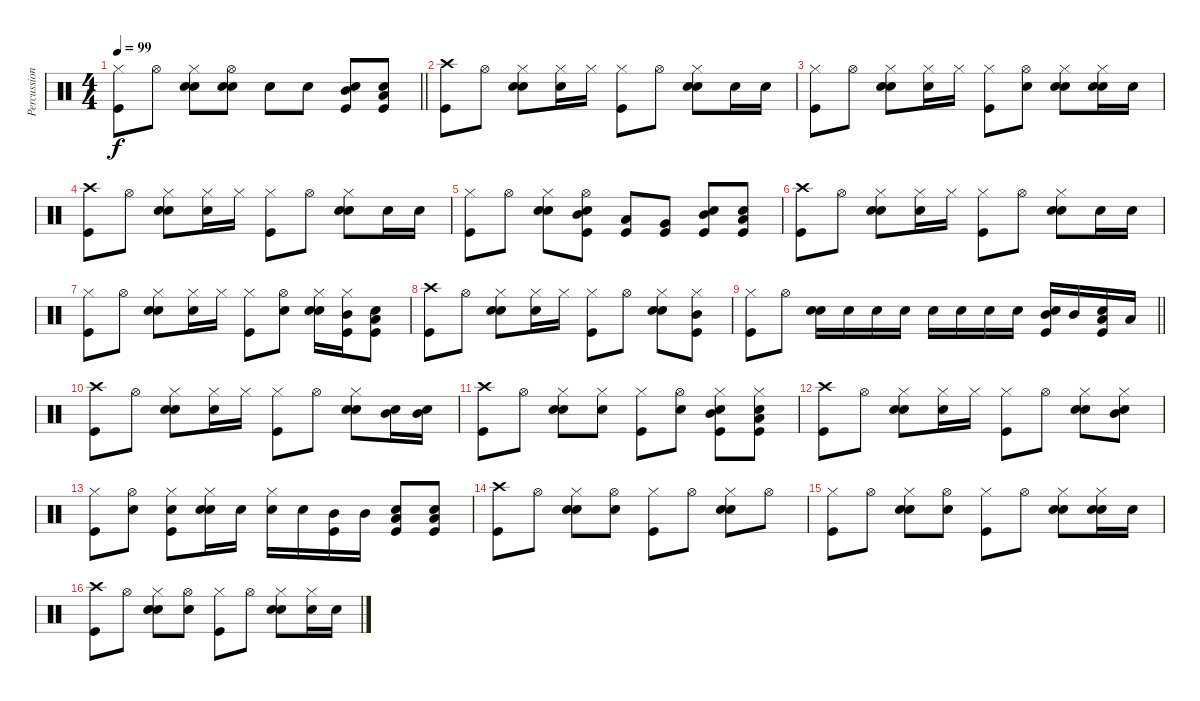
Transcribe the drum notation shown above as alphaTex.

\track ("Percussion" "Percussion") {instrument percussion}
\staff {score}
\articulation defaults
\ts (4 4)
\tempo 99
\clef neutral
\barLineRight lightlight
\ks c
("Hi-Hat (closed)" "Kick (hit)").8{dy f} "Hi-Hat (open)".8 ("Hi-Hat (closed)" "Hand Clap (hit)" "Snare (hit) 2").8 ("Hi-Hat (open)" "Hand Clap (hit)" "Snare (hit) 2").8 "Snare (hit) 2".8 "Snare (hit) 2".8 ("Hand Clap (hit)" "Mid Tom (hit)" "Kick (hit)").8 ("Hand Clap (hit)" "Low Tom (hit)" "Kick (hit)").8 |
("Crash high (hit)" "Kick (hit)").8 "Hi-Hat (open)".8 ("Hi-Hat (closed)" "Hand Clap (hit)" "Snare (hit) 2").8 ("Hi-Hat (closed)" "Hand Clap (hit)").16 "Hi-Hat (closed)".16 ("Hi-Hat (closed)" "Kick (hit)").8 "Hi-Hat (open)".8 ("Hi-Hat (closed)" "Hand Clap (hit)" "Snare (hit) 2").8 "Snare (hit) 2".16 "Snare (hit) 2".16 |
("Hi-Hat (closed)" "Kick (hit)").8 "Hi-Hat (open)".8 ("Hi-Hat (closed)" "Hand Clap (hit)" "Snare (hit) 2").8 ("Hi-Hat (closed)" "Hand Clap (hit)").16 "Hi-Hat (closed)".16 ("Hi-Hat (closed)" "Kick (hit)").8 ("Hi-Hat (open)" "Snare (hit) 2").8 ("Hi-Hat (closed)" "Hand Clap (hit)" "Snare (hit) 2").8 ("Hi-Hat (closed)" "Hand Clap (hit)" "Snare (hit) 2").16 "Snare (hit) 2".16 |
("Crash high (hit)" "Kick (hit)").8 "Hi-Hat (open)".8 ("Hi-Hat (closed)" "Hand Clap (hit)" "Snare (hit) 2").8 ("Hi-Hat (closed)" "Hand Clap (hit)").16 "Hi-Hat (closed)".16 ("Hi-Hat (closed)" "Kick (hit)").8 "Hi-Hat (open)".8 ("Hi-Hat (closed)" "Hand Clap (hit)" "Snare (hit) 2").8 "Snare (hit) 2".16 "Snare (hit) 2".16 |
("Hi-Hat (closed)" "Kick (hit)").8 "Hi-Hat (open)".8 ("Hi-Hat (closed)" "Hand Clap (hit)" "Snare (hit) 2").8 ("Hi-Hat (open)" "Hand Clap (hit)" "Mid Tom (hit)" "Kick (hit)").8 ("Low Tom (hit)" "Kick (hit)").8 ("Very Low Tom (hit)" "Kick (hit)").8 ("Hand Clap (hit)" "Mid Tom (hit)" "Kick (hit)").8 ("Hand Clap (hit)" "Low Tom (hit)" "Kick (hit)").8 |
("Crash high (hit)" "Kick (hit)").8 "Hi-Hat (open)".8 ("Hi-Hat (closed)" "Hand Clap (hit)" "Snare (hit) 2").8 ("Hi-Hat (closed)" "Hand Clap (hit)").16 "Hi-Hat (closed)".16 ("Hi-Hat (closed)" "Kick (hit)").8 "Hi-Hat (open)".8 ("Hi-Hat (closed)" "Hand Clap (hit)" "Snare (hit) 2").8 "Snare (hit) 2".16 "Snare (hit) 2".16 |
("Hi-Hat (closed)" "Kick (hit)").8 "Hi-Hat (open)".8 ("Hi-Hat (closed)" "Hand Clap (hit)" "Snare (hit) 2").8 ("Hi-Hat (closed)" "Hand Clap (hit)").16 "Hi-Hat (closed)".16 ("Hi-Hat (closed)" "Kick (hit)").8 ("Hi-Hat (open)" "Snare (hit) 2").8 ("Hi-Hat (closed)" "Hand Clap (hit)" "Snare (hit) 2").16 ("Hi-Hat (closed)" "Mid Tom (hit)" "Kick (hit)").16 ("Hand Clap (hit)" "Low Tom (hit)" "Kick (hit)").8 |
("Crash high (hit)" "Kick (hit)").8 "Hi-Hat (open)".8 ("Hi-Hat (closed)" "Hand Clap (hit)" "Snare (hit) 2").8 ("Hi-Hat (closed)" "Hand Clap (hit)").16 "Hi-Hat (closed)".16 ("Hi-Hat (closed)" "Kick (hit)").8 "Hi-Hat (open)".8 ("Hi-Hat (closed)" "Hand Clap (hit)" "Snare (hit) 2").8 ("Hi-Hat (closed)" "Mid Tom (hit)" "Kick (hit)").8 |
\barLineRight lightlight
("Hi-Hat (closed)" "Kick (hit)").8 "Hi-Hat (open)".8 ("Hand Clap (hit)" "Snare (hit) 2").16 "Snare (hit) 2".16 "Snare (hit) 2".16 "Snare (hit) 2".16 "Snare (hit) 2".16 "Snare (hit) 2".16 "Snare (hit) 2".16 "Snare (hit) 2".16 ("Hand Clap (hit)" "Mid Tom (hit)" "Kick (hit)").16 "Mid Tom (hit)".16 ("Hand Clap (hit)" "Low Tom (hit)" "Kick (hit)").16 "Low Tom (hit)".16 |
("Crash high (hit)" "Kick (hit)").8 "Hi-Hat (open)".8 ("Hi-Hat (closed)" "Hand Clap (hit)" "Snare (hit) 2").8 ("Hi-Hat (closed)" "Hand Clap (hit)").16 "Hi-Hat (closed)".16 ("Hi-Hat (closed)" "Kick (hit)").8 "Hi-Hat (open)".8 ("Hi-Hat (closed)" "Hand Clap (hit)" "Snare (hit) 2").8 ("Mid Tom (hit)" "Snare (hit) 2").16 ("Mid Tom (hit)" "Snare (hit) 2").16 |
("Crash high (hit)" "Kick (hit)").8 "Hi-Hat (open)".8 ("Hi-Hat (closed)" "Hand Clap (hit)" "Snare (hit) 2").8 ("Hi-Hat (closed)" "Hand Clap (hit)").8 ("Hi-Hat (closed)" "Kick (hit)").8 ("Hi-Hat (open)" "Snare (hit) 2").8 ("Hi-Hat (closed)" "Hand Clap (hit)" "Mid Tom (hit)" "Kick (hit)").8 ("Hi-Hat (closed)" "Hand Clap (hit)" "Low Tom (hit)" "Kick (hit)").8 |
("Crash high (hit)" "Kick (hit)").8 "Hi-Hat (open)".8 ("Hi-Hat (closed)" "Hand Clap (hit)" "Snare (hit) 2").8 ("Hi-Hat (closed)" "Hand Clap (hit)").16 "Hi-Hat (closed)".16 ("Hi-Hat (closed)" "Kick (hit)").8 "Hi-Hat (open)".8 ("Hi-Hat (closed)" "Hand Clap (hit)" "Snare (hit) 2").8 ("Hi-Hat (closed)" "Mid Tom (hit)" "Snare (hit) 2").8 |
("Hi-Hat (closed)" "Kick (hit)").8 ("Hi-Hat (open)" "Snare (hit) 2").8 ("Hi-Hat (closed)" "Hand Clap (hit)" "Kick (hit)").8 ("Hi-Hat (closed)" "Hand Clap (hit)" "Snare (hit) 2").16 "Snare (hit) 2".16 ("Hi-Hat (closed)" "Snare (hit) 2").16 "Snare (hit) 2".16 ("Mid Tom (hit)" "Kick (hit)").16 "Mid Tom (hit)".16 ("Hand Clap (hit)" "Low Tom (hit)" "Kick (hit)").8 ("Hand Clap (hit)" "Low Tom (hit)" "Kick (hit)").8 |
("Crash high (hit)" "Kick (hit)").8 "Hi-Hat (open)".8 ("Hi-Hat (closed)" "Hand Clap (hit)" "Snare (hit) 2").8 ("Hi-Hat (open)" "Hand Clap (hit)").8 ("Hi-Hat (closed)" "Kick (hit)").8 "Hi-Hat (open)".8 ("Hi-Hat (closed)" "Hand Clap (hit)" "Snare (hit) 2").8 "Hi-Hat (open)".8 |
("Hi-Hat (closed)" "Kick (hit)").8 "Hi-Hat (open)".8 ("Hi-Hat (closed)" "Hand Clap (hit)" "Snare (hit) 2").8 ("Hi-Hat (open)" "Hand Clap (hit)").8 ("Hi-Hat (closed)" "Kick (hit)").8 "Hi-Hat (open)".8 ("Hi-Hat (closed)" "Hand Clap (hit)" "Snare (hit) 2").8 ("Hi-Hat (closed)" "Hand Clap (hit)" "Snare (hit) 2").16 "Snare (hit) 2".16 |
("Crash high (hit)" "Kick (hit)").8 "Hi-Hat (open)".8 ("Hi-Hat (closed)" "Hand Clap (hit)" "Snare (hit) 2").8 ("Hi-Hat (open)" "Hand Clap (hit)").8 ("Hi-Hat (closed)" "Kick (hit)").8 "Hi-Hat (open)".8 ("Hi-Hat (closed)" "Hand Clap (hit)" "Snare (hit) 2").8 ("Hi-Hat (closed)" "Snare (hit) 2").16 "Snare (hit) 2".16
